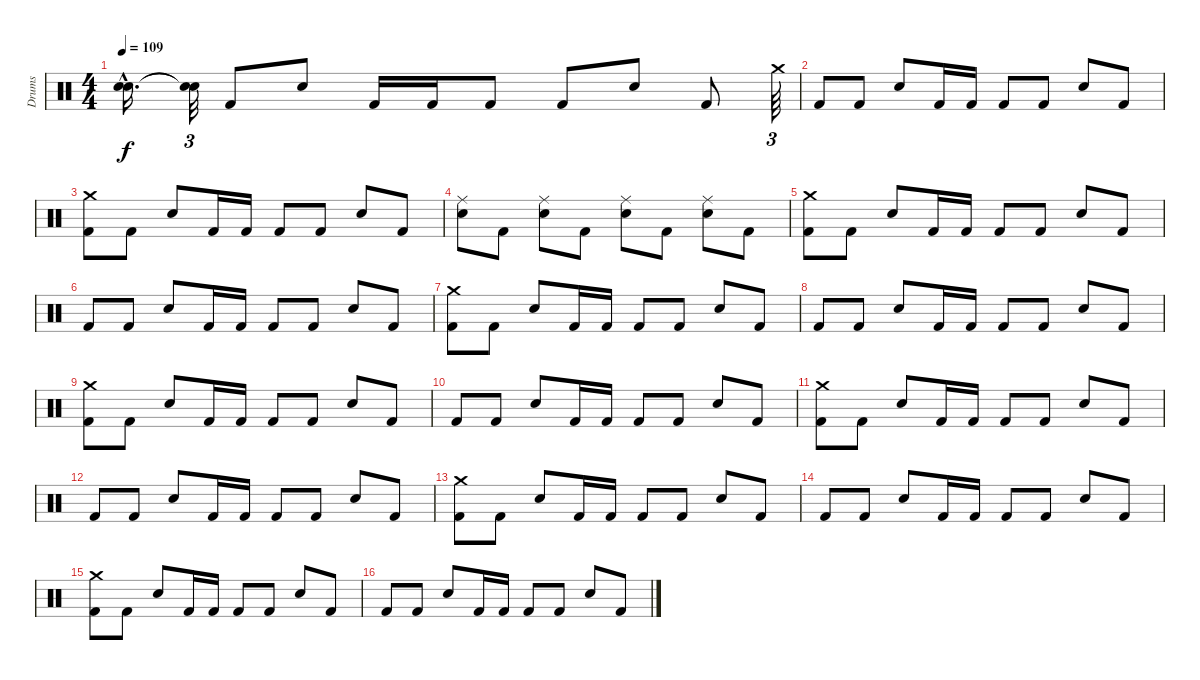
\track ("Drums" "Drums") {instrument percussion}
\staff {score}
\articulation defaults
\ts (4 4)
\tempo 109
\clef neutral
\ks c
("Snare (hit)"{hac t} "Snare (hit)"{hac t}).16{d dy f} ("Snare (hit)"{t} "Snare (hit)"{t}).32{tu (3 2)} "Kick (hit) 2".8 "Snare (hit) 2".8 "Kick (hit) 2".16 "Kick (hit) 2".16 "Kick (hit) 2".8 "Kick (hit) 2".8 "Snare (hit) 2".8 "Kick (hit) 2".8 "Crash medium (hit)".64{tu (3 2)} |
"Kick (hit) 2".8 "Kick (hit) 2".8 "Snare (hit) 2".8 "Kick (hit) 2".16 "Kick (hit) 2".16 "Kick (hit) 2".8 "Kick (hit) 2".8 "Snare (hit) 2".8 "Kick (hit) 2".8 |
("Crash medium (hit)" "Kick (hit) 2").8 "Kick (hit) 2".8 "Snare (hit) 2".8 "Kick (hit) 2".16 "Kick (hit) 2".16 "Kick (hit) 2".8 "Kick (hit) 2".8 "Snare (hit) 2".8 "Kick (hit) 2".8 |
("Ride (middle)" "Snare (hit) 2").8 "Kick (hit) 2".8 ("Ride (middle)" "Snare (hit) 2").8 "Kick (hit) 2".8 ("Ride (middle)" "Snare (hit) 2").8 "Kick (hit) 2".8 ("Ride (middle)" "Snare (hit) 2").8 "Kick (hit) 2".8 |
("Crash medium (hit)" "Kick (hit) 2").8 "Kick (hit) 2".8 "Snare (hit) 2".8 "Kick (hit) 2".16 "Kick (hit) 2".16 "Kick (hit) 2".8 "Kick (hit) 2".8 "Snare (hit) 2".8 "Kick (hit) 2".8 |
"Kick (hit) 2".8 "Kick (hit) 2".8 "Snare (hit) 2".8 "Kick (hit) 2".16 "Kick (hit) 2".16 "Kick (hit) 2".8 "Kick (hit) 2".8 "Snare (hit) 2".8 "Kick (hit) 2".8 |
("Crash medium (hit)" "Kick (hit) 2").8 "Kick (hit) 2".8 "Snare (hit) 2".8 "Kick (hit) 2".16 "Kick (hit) 2".16 "Kick (hit) 2".8 "Kick (hit) 2".8 "Snare (hit) 2".8 "Kick (hit) 2".8 |
"Kick (hit) 2".8 "Kick (hit) 2".8 "Snare (hit) 2".8 "Kick (hit) 2".16 "Kick (hit) 2".16 "Kick (hit) 2".8 "Kick (hit) 2".8 "Snare (hit) 2".8 "Kick (hit) 2".8 |
("Crash medium (hit)" "Kick (hit) 2").8 "Kick (hit) 2".8 "Snare (hit) 2".8 "Kick (hit) 2".16 "Kick (hit) 2".16 "Kick (hit) 2".8 "Kick (hit) 2".8 "Snare (hit) 2".8 "Kick (hit) 2".8 |
"Kick (hit) 2".8 "Kick (hit) 2".8 "Snare (hit) 2".8 "Kick (hit) 2".16 "Kick (hit) 2".16 "Kick (hit) 2".8 "Kick (hit) 2".8 "Snare (hit) 2".8 "Kick (hit) 2".8 |
("Crash medium (hit)" "Kick (hit) 2").8 "Kick (hit) 2".8 "Snare (hit) 2".8 "Kick (hit) 2".16 "Kick (hit) 2".16 "Kick (hit) 2".8 "Kick (hit) 2".8 "Snare (hit) 2".8 "Kick (hit) 2".8 |
"Kick (hit) 2".8 "Kick (hit) 2".8 "Snare (hit) 2".8 "Kick (hit) 2".16 "Kick (hit) 2".16 "Kick (hit) 2".8 "Kick (hit) 2".8 "Snare (hit) 2".8 "Kick (hit) 2".8 |
("Crash medium (hit)" "Kick (hit) 2").8 "Kick (hit) 2".8 "Snare (hit) 2".8 "Kick (hit) 2".16 "Kick (hit) 2".16 "Kick (hit) 2".8 "Kick (hit) 2".8 "Snare (hit) 2".8 "Kick (hit) 2".8 |
"Kick (hit) 2".8 "Kick (hit) 2".8 "Snare (hit) 2".8 "Kick (hit) 2".16 "Kick (hit) 2".16 "Kick (hit) 2".8 "Kick (hit) 2".8 "Snare (hit) 2".8 "Kick (hit) 2".8 |
("Crash medium (hit)" "Kick (hit) 2").8 "Kick (hit) 2".8 "Snare (hit) 2".8 "Kick (hit) 2".16 "Kick (hit) 2".16 "Kick (hit) 2".8 "Kick (hit) 2".8 "Snare (hit) 2".8 "Kick (hit) 2".8 |
"Kick (hit) 2".8 "Kick (hit) 2".8 "Snare (hit) 2".8 "Kick (hit) 2".16 "Kick (hit) 2".16 "Kick (hit) 2".8 "Kick (hit) 2".8 "Snare (hit) 2".8 "Kick (hit) 2".8
